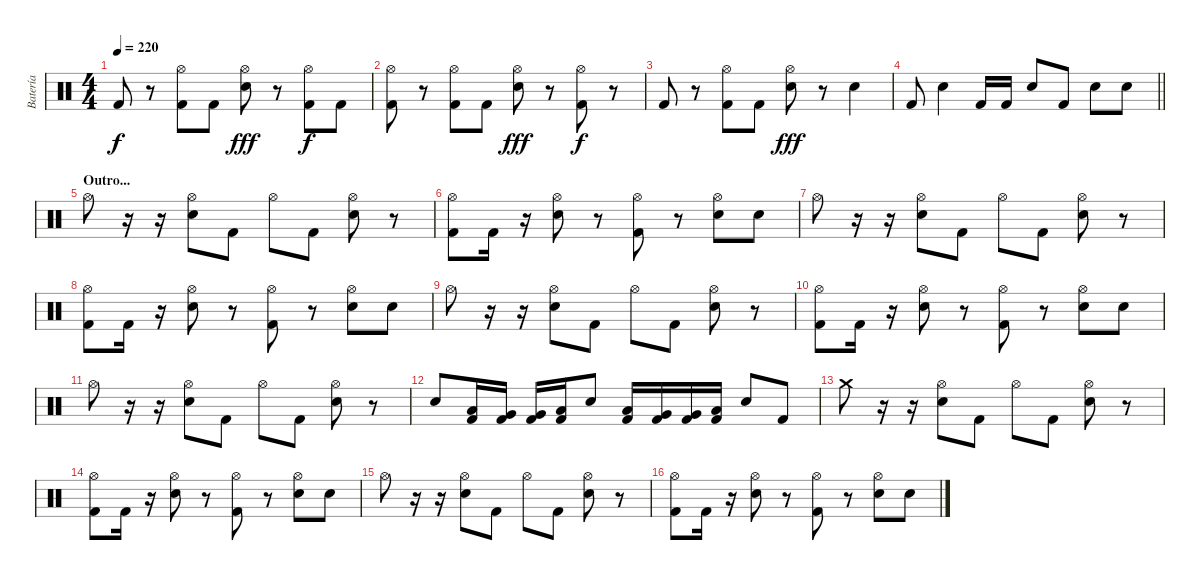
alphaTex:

\track ("Batería" "Batería") {instrument percussion}
\staff {score}
\articulation defaults
\ts (4 4)
\tempo 220
\clef neutral
\ks c "Kick (hit) 2".8{dy f}
r.8 ("Hi-Hat (open)" "Kick (hit) 2").8 "Kick (hit) 2".8 ("Hi-Hat (open)" "Snare (hit) 2").8{dy fff} r.8 ("Hi-Hat (open)" "Kick (hit) 2").8{dy f} "Kick (hit) 2".8 |
("Hi-Hat (open)" "Kick (hit) 2").8 r.8 ("Hi-Hat (open)" "Kick (hit) 2").8 "Kick (hit) 2".8 ("Hi-Hat (open)" "Snare (hit) 2").8{dy fff} r.8 ("Hi-Hat (open)" "Kick (hit) 2").8{dy f} r.8 |
"Kick (hit) 2".8 r.8 ("Hi-Hat (open)" "Kick (hit) 2").8 "Kick (hit) 2".8 ("Hi-Hat (open)" "Snare (hit) 2").8{dy fff} r.8 "Snare (hit) 2".4 |
\barLineRight lightlight "Kick (hit) 2".8 "Snare (hit) 2".4 "Kick (hit) 2".16 "Kick (hit) 2".16 "Snare (hit) 2".8 "Kick (hit) 2".8 "Snare (hit) 2".8 "Snare (hit) 2".8
|
\section ("" "Outro...")
"Hi-Hat (open)".8 r.16 r.16 ("Hi-Hat (open)" "Snare (hit) 2").8 "Kick (hit) 2".8 "Hi-Hat (open)".8 "Kick (hit) 2".8 ("Hi-Hat (open)" "Snare (hit) 2").8 r.8 |
("Hi-Hat (open)" "Kick (hit) 2").8 "Kick (hit) 2".16 r.16 ("Hi-Hat (open)" "Snare (hit) 2").8 r.8 ("Hi-Hat (open)" "Kick (hit) 2").8 r.8 ("Hi-Hat (open)" "Snare (hit) 2").8 "Snare (hit) 2".8 |
"Hi-Hat (open)".8 r.16 r.16 ("Hi-Hat (open)" "Snare (hit) 2").8 "Kick (hit) 2".8 "Hi-Hat (open)".8 "Kick (hit) 2".8 ("Hi-Hat (open)" "Snare (hit) 2").8 r.8 |
("Hi-Hat (open)" "Kick (hit) 2").8 "Kick (hit) 2".16 r.16 ("Hi-Hat (open)" "Snare (hit) 2").8 r.8 ("Hi-Hat (open)" "Kick (hit) 2").8 r.8 ("Hi-Hat (open)" "Snare (hit) 2").8 "Snare (hit) 2".8 |
"Hi-Hat (open)".8 r.16 r.16 ("Hi-Hat (open)" "Snare (hit) 2").8 "Kick (hit) 2".8 "Hi-Hat (open)".8 "Kick (hit) 2".8 ("Hi-Hat (open)" "Snare (hit) 2").8 r.8 |
("Hi-Hat (open)" "Kick (hit) 2").8 "Kick (hit) 2".16 r.16 ("Hi-Hat (open)" "Snare (hit) 2").8 r.8 ("Hi-Hat (open)" "Kick (hit) 2").8 r.8 ("Hi-Hat (open)" "Snare (hit) 2").8 "Snare (hit) 2".8 |
"Hi-Hat (open)".8 r.16 r.16 ("Hi-Hat (open)" "Snare (hit) 2").8 "Kick (hit) 2".8 "Hi-Hat (open)".8 "Kick (hit) 2".8 ("Hi-Hat (open)" "Snare (hit) 2").8 r.8 |
"Snare (hit) 2".8 ("Low Floor Tom (hit)" "Kick (hit) 2").16 ("Very Low Tom (hit)" "Kick (hit) 2").16 ("Very Low Tom (hit)" "Kick (hit) 2").16 ("Low Floor Tom (hit)" "Kick (hit) 2").16 "Snare (hit) 2".8 ("Low Floor Tom (hit)" "Kick (hit) 2").16 ("Very Low Tom (hit)" "Kick (hit) 2").16 ("Very Low Tom (hit)" "Kick (hit) 2").16 ("Low Floor Tom (hit)" "Kick (hit) 2").16 "Snare (hit) 2".8 "Kick (hit) 2".8 |
"Crash medium (hit)".8 r.16 r.16 ("Hi-Hat (open)" "Snare (hit) 2").8 "Kick (hit) 2".8 "Hi-Hat (open)".8 "Kick (hit) 2".8 ("Hi-Hat (open)" "Snare (hit) 2").8 r.8 |
("Hi-Hat (open)" "Kick (hit) 2").8 "Kick (hit) 2".16 r.16 ("Hi-Hat (open)" "Snare (hit) 2").8 r.8 ("Hi-Hat (open)" "Kick (hit) 2").8 r.8 ("Hi-Hat (open)" "Snare (hit) 2").8 "Snare (hit) 2".8 |
"Hi-Hat (open)".8 r.16 r.16 ("Hi-Hat (open)" "Snare (hit) 2").8 "Kick (hit) 2".8 "Hi-Hat (open)".8 "Kick (hit) 2".8 ("Hi-Hat (open)" "Snare (hit) 2").8 r.8 |
("Hi-Hat (open)" "Kick (hit) 2").8 "Kick (hit) 2".16 r.16 ("Hi-Hat (open)" "Snare (hit) 2").8 r.8 ("Hi-Hat (open)" "Kick (hit) 2").8 r.8 ("Hi-Hat (open)" "Snare (hit) 2").8 "Snare (hit) 2".8
